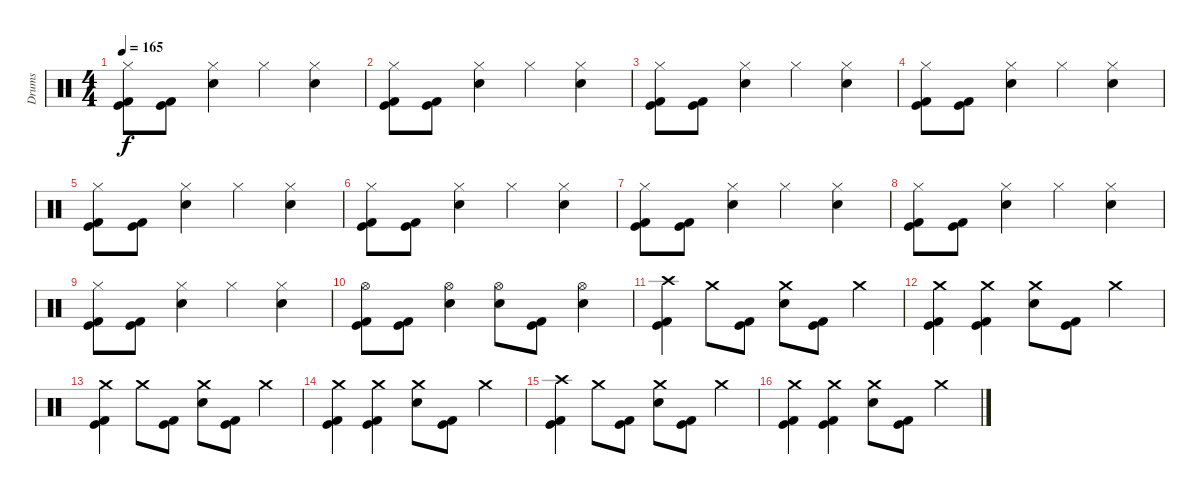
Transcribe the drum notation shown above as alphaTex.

\track ("Drums" "Drums") {instrument percussion}
\staff {score}
\articulation defaults
\ts (4 4)
\tempo 165
\clef neutral
\ks c
("Hi-Hat (closed)" "Kick (hit)" "Kick (hit) 2").8{dy f} ("Kick (hit)" "Kick (hit) 2").8 ("Hi-Hat (closed)" "Electric Snare (hit)").4 "Hi-Hat (closed)".4 ("Hi-Hat (closed)" "Electric Snare (hit)").4 |
("Hi-Hat (closed)" "Kick (hit)" "Kick (hit) 2").8 ("Kick (hit)" "Kick (hit) 2").8 ("Hi-Hat (closed)" "Electric Snare (hit)").4 "Hi-Hat (closed)".4 ("Hi-Hat (closed)" "Electric Snare (hit)").4 |
("Hi-Hat (closed)" "Kick (hit)" "Kick (hit) 2").8 ("Kick (hit)" "Kick (hit) 2").8 ("Hi-Hat (closed)" "Electric Snare (hit)").4 "Hi-Hat (closed)".4 ("Hi-Hat (closed)" "Electric Snare (hit)").4 |
("Hi-Hat (closed)" "Kick (hit)" "Kick (hit) 2").8 ("Kick (hit)" "Kick (hit) 2").8 ("Hi-Hat (closed)" "Electric Snare (hit)").4 "Hi-Hat (closed)".4 ("Hi-Hat (closed)" "Electric Snare (hit)").4 |
("Hi-Hat (closed)" "Kick (hit)" "Kick (hit) 2").8 ("Kick (hit)" "Kick (hit) 2").8 ("Hi-Hat (closed)" "Electric Snare (hit)").4 "Hi-Hat (closed)".4 ("Hi-Hat (closed)" "Electric Snare (hit)").4 |
("Hi-Hat (closed)" "Kick (hit)" "Kick (hit) 2").8 ("Kick (hit)" "Kick (hit) 2").8 ("Hi-Hat (closed)" "Electric Snare (hit)").4 "Hi-Hat (closed)".4 ("Hi-Hat (closed)" "Electric Snare (hit)").4 |
("Hi-Hat (closed)" "Kick (hit)" "Kick (hit) 2").8 ("Kick (hit)" "Kick (hit) 2").8 ("Hi-Hat (closed)" "Electric Snare (hit)").4 "Hi-Hat (closed)".4 ("Hi-Hat (closed)" "Electric Snare (hit)").4 |
("Hi-Hat (closed)" "Kick (hit)" "Kick (hit) 2").8 ("Kick (hit)" "Kick (hit) 2").8 ("Hi-Hat (closed)" "Electric Snare (hit)").4 "Hi-Hat (closed)".4 ("Hi-Hat (closed)" "Electric Snare (hit)").4 |
("Hi-Hat (closed)" "Kick (hit)" "Kick (hit) 2").8 ("Kick (hit)" "Kick (hit) 2").8 ("Hi-Hat (closed)" "Electric Snare (hit)").4 "Hi-Hat (closed)".4 ("Hi-Hat (closed)" "Electric Snare (hit)").4 |
("Hi-Hat (open)" "Kick (hit)" "Kick (hit) 2").8 ("Kick (hit)" "Kick (hit) 2").8 ("Hi-Hat (open)" "Electric Snare (hit)").4 ("Hi-Hat (open)" "Electric Snare (hit)").8 ("Kick (hit)" "Kick (hit) 2").8 ("Hi-Hat (open)" "Electric Snare (hit)").4 |
("Crash high (hit)" "Kick (hit) 2" "Kick (hit)").4 "Crash medium (hit)".8 ("Kick (hit)" "Kick (hit) 2").8 ("Crash medium (hit)" "Electric Snare (hit)").8 ("Kick (hit)" "Kick (hit) 2").8 "Crash medium (hit)".4 |
("Crash medium (hit)" "Kick (hit)" "Kick (hit) 2").4 ("Crash medium (hit)" "Kick (hit)" "Kick (hit) 2").4 ("Crash medium (hit)" "Electric Snare (hit)").8 ("Kick (hit)" "Kick (hit) 2").8 "Crash medium (hit)".4 |
("Crash medium (hit)" "Kick (hit) 2" "Kick (hit)").4 "Crash medium (hit)".8 ("Kick (hit)" "Kick (hit) 2").8 ("Crash medium (hit)" "Electric Snare (hit)").8 ("Kick (hit)" "Kick (hit) 2").8 "Crash medium (hit)".4 |
("Crash medium (hit)" "Kick (hit)" "Kick (hit) 2").4 ("Crash medium (hit)" "Kick (hit)" "Kick (hit) 2").4 ("Crash medium (hit)" "Electric Snare (hit)").8 ("Kick (hit)" "Kick (hit) 2").8 "Crash medium (hit)".4 |
("Crash high (hit)" "Kick (hit) 2" "Kick (hit)").4 "Crash medium (hit)".8 ("Kick (hit)" "Kick (hit) 2").8 ("Crash medium (hit)" "Electric Snare (hit)").8 ("Kick (hit)" "Kick (hit) 2").8 "Crash medium (hit)".4 |
("Crash medium (hit)" "Kick (hit)" "Kick (hit) 2").4 ("Crash medium (hit)" "Kick (hit)" "Kick (hit) 2").4 ("Crash medium (hit)" "Electric Snare (hit)").8 ("Kick (hit)" "Kick (hit) 2").8 "Crash medium (hit)".4
